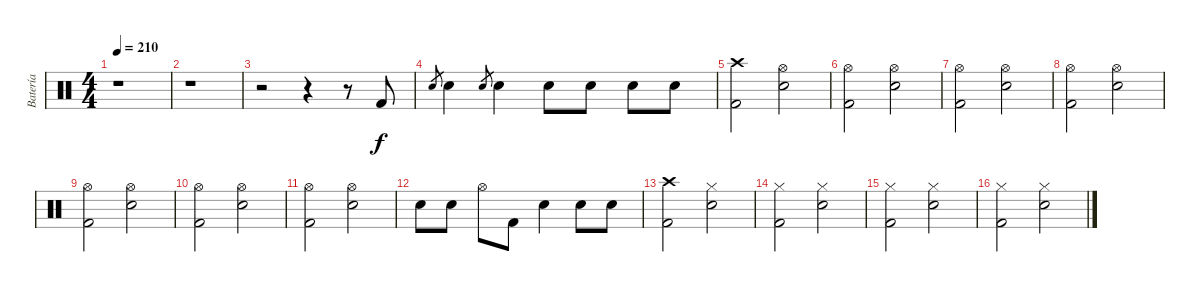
\track ("Batería" "Batería") {instrument percussion}
\staff {score}
\articulation defaults
\ts (4 4)
\tempo 210
\clef neutral
\ks c
r.1{dy f} |
r.1 |
r.2 r.4 r.8 "Kick (hit) 2".8 |
"Snare (hit) 2".8{gr} "Snare (hit) 2".4 "Snare (hit) 2".8{gr} "Snare (hit) 2".4 "Snare (hit) 2".8 "Snare (hit) 2".8 "Snare (hit) 2".8 "Snare (hit) 2".8 |
("Crash high (hit)" "Kick (hit) 2").2 ("Hi-Hat (open)" "Snare (hit) 2").2 |
("Hi-Hat (open)" "Kick (hit) 2").2 ("Hi-Hat (open)" "Snare (hit) 2").2 |
("Hi-Hat (open)" "Kick (hit) 2").2 ("Hi-Hat (open)" "Snare (hit) 2").2 |
("Hi-Hat (open)" "Kick (hit) 2").2 ("Hi-Hat (open)" "Snare (hit) 2").2 |
("Hi-Hat (open)" "Kick (hit) 2").2 ("Hi-Hat (open)" "Snare (hit) 2").2 |
("Hi-Hat (open)" "Kick (hit) 2").2 ("Hi-Hat (open)" "Snare (hit) 2").2 |
("Hi-Hat (open)" "Kick (hit) 2").2 ("Hi-Hat (open)" "Snare (hit) 2").2 |
"Snare (hit) 2".8 "Snare (hit) 2".8 "Hi-Hat (open)".8 "Kick (hit) 2".8 "Snare (hit) 2".4 "Snare (hit) 2".8 "Snare (hit) 2".8 |
("Crash high (hit)" "Kick (hit) 2").2 ("Hi-Hat (closed)" "Snare (hit) 2").2 |
("Hi-Hat (closed)" "Kick (hit) 2").2 ("Hi-Hat (closed)" "Snare (hit) 2").2 |
("Hi-Hat (closed)" "Kick (hit) 2").2 ("Hi-Hat (closed)" "Snare (hit) 2").2 |
("Hi-Hat (closed)" "Kick (hit) 2").2 ("Hi-Hat (closed)" "Snare (hit) 2").2
